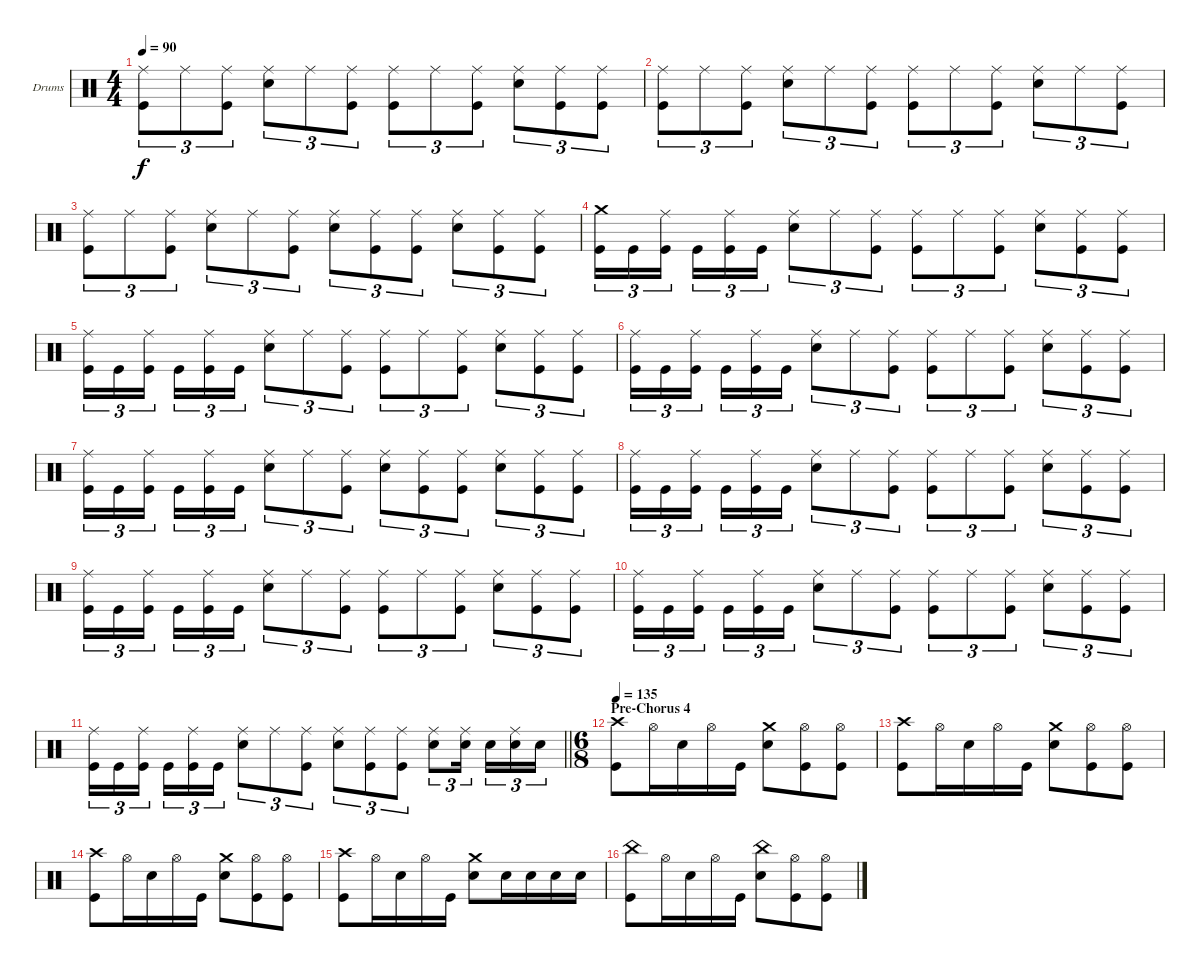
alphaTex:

\bracketExtendMode groupsimilarinstruments
\firstSystemTrackNameOrientation horizontal
\otherSystemsTrackNameOrientation horizontal
\track ("drums (Anton Zulganov)" "Drums") {instrument percussion}
\staff {score}
\articulation defaults
\ts (4 4)
\tempo 90
\clef neutral
\ks aminor
("Kick (hit)" "Ride (middle)").8{tu (3 2) dy f} "Ride (middle)".8{tu (3 2)} ("Kick (hit)" "Ride (middle)").8{tu (3 2)} ("Snare (hit) 2" "Ride (middle)").8{tu (3 2)} "Ride (middle)".8{tu (3 2)} ("Kick (hit)" "Ride (middle)").8{tu (3 2)} ("Kick (hit)" "Ride (middle)").8{tu (3 2)} "Ride (middle)".8{tu (3 2)} ("Kick (hit)" "Ride (middle)").8{tu (3 2)} ("Snare (hit) 2" "Ride (middle)").8{tu (3 2)} ("Kick (hit)" "Ride (middle)").8{tu (3 2)} ("Kick (hit)" "Ride (middle)").8{tu (3 2)} |
("Kick (hit)" "Ride (middle)").8{tu (3 2)} "Ride (middle)".8{tu (3 2)} ("Kick (hit)" "Ride (middle)").8{tu (3 2)} ("Snare (hit) 2" "Ride (middle)").8{tu (3 2)} "Ride (middle)".8{tu (3 2)} ("Kick (hit)" "Ride (middle)").8{tu (3 2)} ("Kick (hit)" "Ride (middle)").8{tu (3 2)} "Ride (middle)".8{tu (3 2)} ("Kick (hit)" "Ride (middle)").8{tu (3 2)} ("Snare (hit) 2" "Ride (middle)").8{tu (3 2)} "Ride (middle)".8{tu (3 2)} ("Kick (hit)" "Ride (middle)").8{tu (3 2)} |
("Kick (hit)" "Ride (middle)").8{tu (3 2)} "Ride (middle)".8{tu (3 2)} ("Kick (hit)" "Ride (middle)").8{tu (3 2)} ("Snare (hit) 2" "Ride (middle)").8{tu (3 2)} "Ride (middle)".8{tu (3 2)} ("Kick (hit)" "Ride (middle)").8{tu (3 2)} ("Snare (hit) 2" "Ride (middle)").8{tu (3 2)} ("Kick (hit)" "Ride (middle)").8{tu (3 2)} ("Kick (hit)" "Ride (middle)").8{tu (3 2)} ("Snare (hit) 2" "Ride (middle)").8{tu (3 2)} ("Kick (hit)" "Ride (middle)").8{tu (3 2)} ("Kick (hit)" "Ride (middle)").8{tu (3 2)} |
("Kick (hit)" "Crash medium (hit)").16{tu (3 2)} "Kick (hit)".16{tu (3 2)} ("Kick (hit)" "Ride (middle)").16{tu (3 2)} "Kick (hit)".16{tu (3 2)} ("Kick (hit)" "Ride (middle)").16{tu (3 2)} "Kick (hit)".16{tu (3 2)} ("Snare (hit) 2" "Ride (middle)").8{tu (3 2)} "Ride (middle)".8{tu (3 2)} ("Kick (hit)" "Ride (middle)").8{tu (3 2)} ("Kick (hit)" "Ride (middle)").8{tu (3 2)} "Ride (middle)".8{tu (3 2)} ("Kick (hit)" "Ride (middle)").8{tu (3 2)} ("Snare (hit) 2" "Ride (middle)").8{tu (3 2)} ("Ride (middle)" "Kick (hit)").8{tu (3 2)} ("Kick (hit)" "Ride (middle)").8{tu (3 2)} |
("Kick (hit)" "Ride (middle)").16{tu (3 2)} "Kick (hit)".16{tu (3 2)} ("Kick (hit)" "Ride (middle)").16{tu (3 2)} "Kick (hit)".16{tu (3 2)} ("Kick (hit)" "Ride (middle)").16{tu (3 2)} "Kick (hit)".16{tu (3 2)} ("Snare (hit) 2" "Ride (middle)").8{tu (3 2)} "Ride (middle)".8{tu (3 2)} ("Kick (hit)" "Ride (middle)").8{tu (3 2)} ("Kick (hit)" "Ride (middle)").8{tu (3 2)} "Ride (middle)".8{tu (3 2)} ("Kick (hit)" "Ride (middle)").8{tu (3 2)} ("Snare (hit) 2" "Ride (middle)").8{tu (3 2)} ("Kick (hit)" "Ride (middle)").8{tu (3 2)} ("Kick (hit)" "Ride (middle)").8{tu (3 2)} |
("Kick (hit)" "Ride (middle)").16{tu (3 2)} "Kick (hit)".16{tu (3 2)} ("Kick (hit)" "Ride (middle)").16{tu (3 2)} "Kick (hit)".16{tu (3 2)} ("Kick (hit)" "Ride (middle)").16{tu (3 2)} "Kick (hit)".16{tu (3 2)} ("Snare (hit) 2" "Ride (middle)").8{tu (3 2)} "Ride (middle)".8{tu (3 2)} ("Kick (hit)" "Ride (middle)").8{tu (3 2)} ("Kick (hit)" "Ride (middle)").8{tu (3 2)} "Ride (middle)".8{tu (3 2)} ("Kick (hit)" "Ride (middle)").8{tu (3 2)} ("Snare (hit) 2" "Ride (middle)").8{tu (3 2)} ("Kick (hit)" "Ride (middle)").8{tu (3 2)} ("Kick (hit)" "Ride (middle)").8{tu (3 2)} |
("Kick (hit)" "Ride (middle)").16{tu (3 2)} "Kick (hit)".16{tu (3 2)} ("Kick (hit)" "Ride (middle)").16{tu (3 2)} "Kick (hit)".16{tu (3 2)} ("Kick (hit)" "Ride (middle)").16{tu (3 2)} "Kick (hit)".16{tu (3 2)} ("Snare (hit) 2" "Ride (middle)").8{tu (3 2)} "Ride (middle)".8{tu (3 2)} ("Kick (hit)" "Ride (middle)").8{tu (3 2)} ("Snare (hit) 2" "Ride (middle)").8{tu (3 2)} ("Kick (hit)" "Ride (middle)").8{tu (3 2)} ("Kick (hit)" "Ride (middle)").8{tu (3 2)} ("Snare (hit) 2" "Ride (middle)").8{tu (3 2)} ("Kick (hit)" "Ride (middle)").8{tu (3 2)} ("Kick (hit)" "Ride (middle)").8{tu (3 2)} |
("Kick (hit)" "Ride (middle)").16{tu (3 2)} "Kick (hit)".16{tu (3 2)} ("Kick (hit)" "Ride (middle)").16{tu (3 2)} "Kick (hit)".16{tu (3 2)} ("Kick (hit)" "Ride (middle)").16{tu (3 2)} "Kick (hit)".16{tu (3 2)} ("Snare (hit) 2" "Ride (middle)").8{tu (3 2)} "Ride (middle)".8{tu (3 2)} ("Kick (hit)" "Ride (middle)").8{tu (3 2)} ("Kick (hit)" "Ride (middle)").8{tu (3 2)} "Ride (middle)".8{tu (3 2)} ("Kick (hit)" "Ride (middle)").8{tu (3 2)} ("Snare (hit) 2" "Ride (middle)").8{tu (3 2)} ("Kick (hit)" "Ride (middle)").8{tu (3 2)} ("Kick (hit)" "Ride (middle)").8{tu (3 2)} |
("Kick (hit)" "Ride (middle)").16{tu (3 2)} "Kick (hit)".16{tu (3 2)} ("Kick (hit)" "Ride (middle)").16{tu (3 2)} "Kick (hit)".16{tu (3 2)} ("Kick (hit)" "Ride (middle)").16{tu (3 2)} "Kick (hit)".16{tu (3 2)} ("Snare (hit) 2" "Ride (middle)").8{tu (3 2)} "Ride (middle)".8{tu (3 2)} ("Kick (hit)" "Ride (middle)").8{tu (3 2)} ("Kick (hit)" "Ride (middle)").8{tu (3 2)} "Ride (middle)".8{tu (3 2)} ("Kick (hit)" "Ride (middle)").8{tu (3 2)} ("Snare (hit) 2" "Ride (middle)").8{tu (3 2)} ("Kick (hit)" "Ride (middle)").8{tu (3 2)} ("Kick (hit)" "Ride (middle)").8{tu (3 2)} |
("Kick (hit)" "Ride (middle)").16{tu (3 2)} "Kick (hit)".16{tu (3 2)} ("Kick (hit)" "Ride (middle)").16{tu (3 2)} "Kick (hit)".16{tu (3 2)} ("Kick (hit)" "Ride (middle)").16{tu (3 2)} "Kick (hit)".16{tu (3 2)} ("Snare (hit) 2" "Ride (middle)").8{tu (3 2)} "Ride (middle)".8{tu (3 2)} ("Kick (hit)" "Ride (middle)").8{tu (3 2)} ("Kick (hit)" "Ride (middle)").8{tu (3 2)} "Ride (middle)".8{tu (3 2)} ("Kick (hit)" "Ride (middle)").8{tu (3 2)} ("Snare (hit) 2" "Ride (middle)").8{tu (3 2)} ("Kick (hit)" "Ride (middle)").8{tu (3 2)} ("Kick (hit)" "Ride (middle)").8{tu (3 2)} |
\barLineRight lightlight
("Kick (hit)" "Ride (middle)").16{tu (3 2)} "Kick (hit)".16{tu (3 2)} ("Kick (hit)" "Ride (middle)").16{tu (3 2)} "Kick (hit)".16{tu (3 2)} ("Kick (hit)" "Ride (middle)").16{tu (3 2)} "Kick (hit)".16{tu (3 2)} ("Snare (hit) 2" "Ride (middle)").8{tu (3 2)} "Ride (middle)".8{tu (3 2)} ("Kick (hit)" "Ride (middle)").8{tu (3 2)} ("Snare (hit) 2" "Ride (middle)").8{tu (3 2)} ("Kick (hit)" "Ride (middle)").8{tu (3 2)} ("Kick (hit)" "Ride (middle)").8{tu (3 2)} ("Snare (hit) 2" "Ride (middle)").8{tu (3 2)} ("Snare (hit) 2" "Ride (middle)").16{tu (3 2)} "Snare (hit) 2".16{tu (3 2)} ("Snare (hit) 2" "Ride (middle)").16{tu (3 2)} "Snare (hit) 2".16{tu (3 2)} |
\ts (6 8)
\beaming (8 3 3)
\section ("" "Pre-Chorus 4")
\tempo 135
("Kick (hit)" "Crash high (hit)").8 "Hi-Hat (open)".16 "Snare (hit) 2".16 "Hi-Hat (open)".16 "Kick (hit)".16 ("Snare (hit) 2" "Crash medium (hit)").8 ("Kick (hit)" "Hi-Hat (open)").8 ("Kick (hit)" "Hi-Hat (open)").8 |
("Kick (hit)" "Crash high (hit)").8 "Hi-Hat (open)".16 "Snare (hit) 2".16 "Hi-Hat (open)".16 "Kick (hit)".16 ("Snare (hit) 2" "Crash medium (hit)").8 ("Kick (hit)" "Hi-Hat (open)").8 ("Kick (hit)" "Hi-Hat (open)").8 |
("Kick (hit)" "Crash high (hit)").8 "Hi-Hat (open)".16 "Snare (hit) 2".16 "Hi-Hat (open)".16 "Kick (hit)".16 ("Snare (hit) 2" "Crash medium (hit)").8 ("Kick (hit)" "Hi-Hat (open)").8 ("Kick (hit)" "Hi-Hat (open)").8 |
("Kick (hit)" "Crash high (hit)").8 "Hi-Hat (open)".16 "Snare (hit) 2".16 "Hi-Hat (open)".16 "Kick (hit)".16 ("Snare (hit) 2" "Crash medium (hit)").8 "Snare (hit) 2".16 "Snare (hit) 2".16 "Snare (hit) 2".16 "Snare (hit) 2".16 |
("Kick (hit)" "China (hit)").8 "Hi-Hat (open)".16 "Snare (hit) 2".16 "Hi-Hat (open)".16 "Kick (hit)".16 ("Snare (hit) 2" "China (hit)").8 ("Kick (hit)" "Hi-Hat (open)").8 ("Kick (hit)" "Hi-Hat (open)").8
